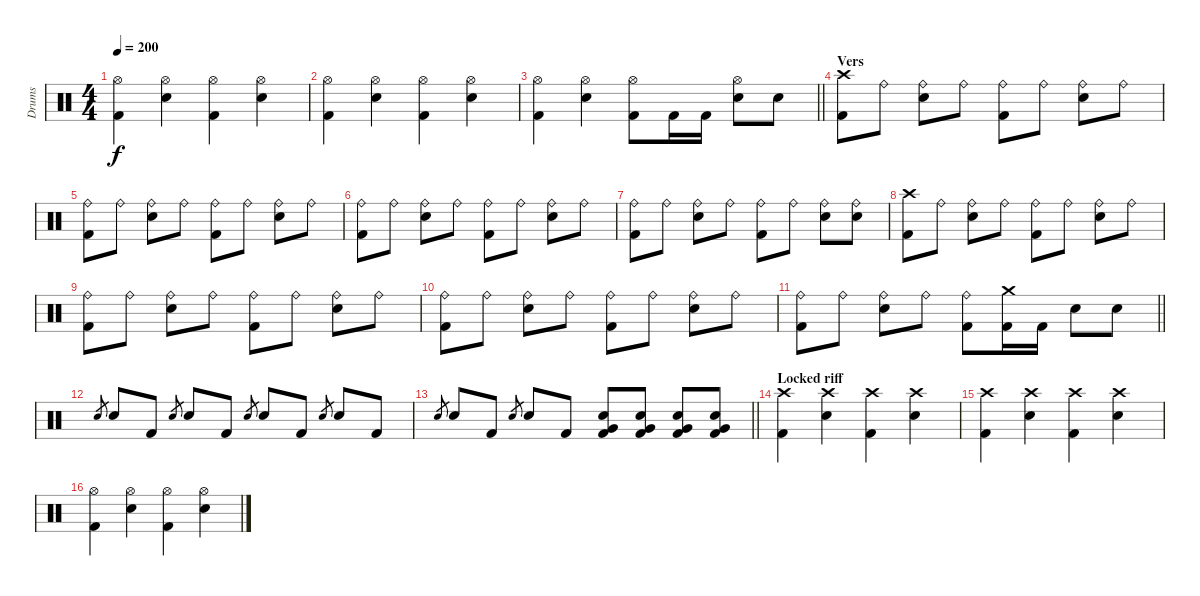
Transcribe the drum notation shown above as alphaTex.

\track ("Drums" "Drums") {instrument percussion}
\staff {score}
\articulation defaults
\ts (4 4)
\tempo 200
\clef neutral
\ks c
("Hi-Hat (open)" "Kick (hit) 2").4{dy f} ("Hi-Hat (open)" "Snare (hit) 2").4 ("Hi-Hat (open)" "Kick (hit) 2").4 ("Hi-Hat (open)" "Snare (hit) 2").4 |
("Hi-Hat (open)" "Kick (hit) 2").4 ("Hi-Hat (open)" "Snare (hit) 2").4 ("Hi-Hat (open)" "Kick (hit) 2").4 ("Hi-Hat (open)" "Snare (hit) 2").4 |
\barLineRight lightlight
("Hi-Hat (open)" "Kick (hit) 2").4 ("Hi-Hat (open)" "Snare (hit) 2").4 ("Hi-Hat (open)" "Kick (hit) 2").8 "Kick (hit) 2".16 "Kick (hit) 2".16 ("Hi-Hat (open)" "Snare (hit) 2").8 "Snare (hit) 2".8 |
\section ("" "Vers")
("Crash high (hit)" "Kick (hit) 2").8 "Ride (bell)".8 ("Ride (bell)" "Snare (hit) 2").8 "Ride (bell)".8 ("Ride (bell)" "Kick (hit) 2").8 "Ride (bell)".8 ("Ride (bell)" "Snare (hit) 2").8 "Ride (bell)".8 |
("Ride (bell)" "Kick (hit) 2").8 "Ride (bell)".8 ("Ride (bell)" "Snare (hit) 2").8 "Ride (bell)".8 ("Ride (bell)" "Kick (hit) 2").8 "Ride (bell)".8 ("Ride (bell)" "Snare (hit) 2").8 "Ride (bell)".8 |
("Ride (bell)" "Kick (hit) 2").8 "Ride (bell)".8 ("Ride (bell)" "Snare (hit) 2").8 "Ride (bell)".8 ("Ride (bell)" "Kick (hit) 2").8 "Ride (bell)".8 ("Ride (bell)" "Snare (hit) 2").8 "Ride (bell)".8 |
("Ride (bell)" "Kick (hit) 2").8 "Ride (bell)".8 ("Ride (bell)" "Snare (hit) 2").8 "Ride (bell)".8 ("Ride (bell)" "Kick (hit) 2").8 "Ride (bell)".8 ("Ride (bell)" "Snare (hit) 2").8 ("Ride (bell)" "Snare (hit) 2").8 |
("Crash high (hit)" "Kick (hit) 2").8 "Ride (bell)".8 ("Ride (bell)" "Snare (hit) 2").8 "Ride (bell)".8 ("Ride (bell)" "Kick (hit) 2").8 "Ride (bell)".8 ("Ride (bell)" "Snare (hit) 2").8 "Ride (bell)".8 |
("Ride (bell)" "Kick (hit) 2").8 "Ride (bell)".8 ("Ride (bell)" "Snare (hit) 2").8 "Ride (bell)".8 ("Ride (bell)" "Kick (hit) 2").8 "Ride (bell)".8 ("Ride (bell)" "Snare (hit) 2").8 "Ride (bell)".8 |
("Ride (bell)" "Kick (hit) 2").8 "Ride (bell)".8 ("Ride (bell)" "Snare (hit) 2").8 "Ride (bell)".8 ("Ride (bell)" "Kick (hit) 2").8 "Ride (bell)".8 ("Ride (bell)" "Snare (hit) 2").8 "Ride (bell)".8 |
\barLineRight lightlight
("Ride (bell)" "Kick (hit) 2").8 "Ride (bell)".8 ("Ride (bell)" "Snare (hit) 2").8 "Ride (bell)".8 ("Ride (bell)" "Kick (hit) 2").8 ("Crash medium (hit)" "Kick (hit) 2").16 "Kick (hit) 2".16 "Snare (hit) 2".8 "Snare (hit) 2".8 |
"Snare (hit) 2".8{gr} "Snare (hit) 2".8 "Kick (hit) 2".8 "Snare (hit) 2".8{gr} "Snare (hit) 2".8 "Kick (hit) 2".8 "Snare (hit) 2".8{gr} "Snare (hit) 2".8 "Kick (hit) 2".8 "Snare (hit) 2".8{gr} "Snare (hit) 2".8 "Kick (hit) 2".8 |
\barLineRight lightlight "Snare (hit) 2".8{gr} "Snare (hit) 2".8 "Kick (hit) 2".8 "Snare (hit) 2".8{gr} "Snare (hit) 2".8 "Kick (hit) 2".8
("Very Low Tom (hit)" "Snare (hit) 2" "Kick (hit) 2").8 ("Very Low Tom (hit)" "Snare (hit) 2" "Kick (hit) 2").8 ("Very Low Tom (hit)" "Snare (hit) 2" "Kick (hit) 2").8 ("Very Low Tom (hit)" "Snare (hit) 2" "Kick (hit) 2").8 |
\section ("" "Locked riff")
("Crash high (hit)" "Kick (hit) 2").4 ("Crash high (hit)" "Snare (hit) 2").4 ("Crash high (hit)" "Kick (hit) 2").4 ("Crash high (hit)" "Snare (hit) 2").4 |
("Crash high (hit)" "Kick (hit) 2").4 ("Crash high (hit)" "Snare (hit) 2").4 ("Crash high (hit)" "Kick (hit) 2").4 ("Crash high (hit)" "Snare (hit) 2").4 |
("Hi-Hat (open)" "Kick (hit) 2").4 ("Hi-Hat (open)" "Snare (hit) 2").4 ("Hi-Hat (open)" "Kick (hit) 2").4 ("Hi-Hat (open)" "Snare (hit) 2").4
